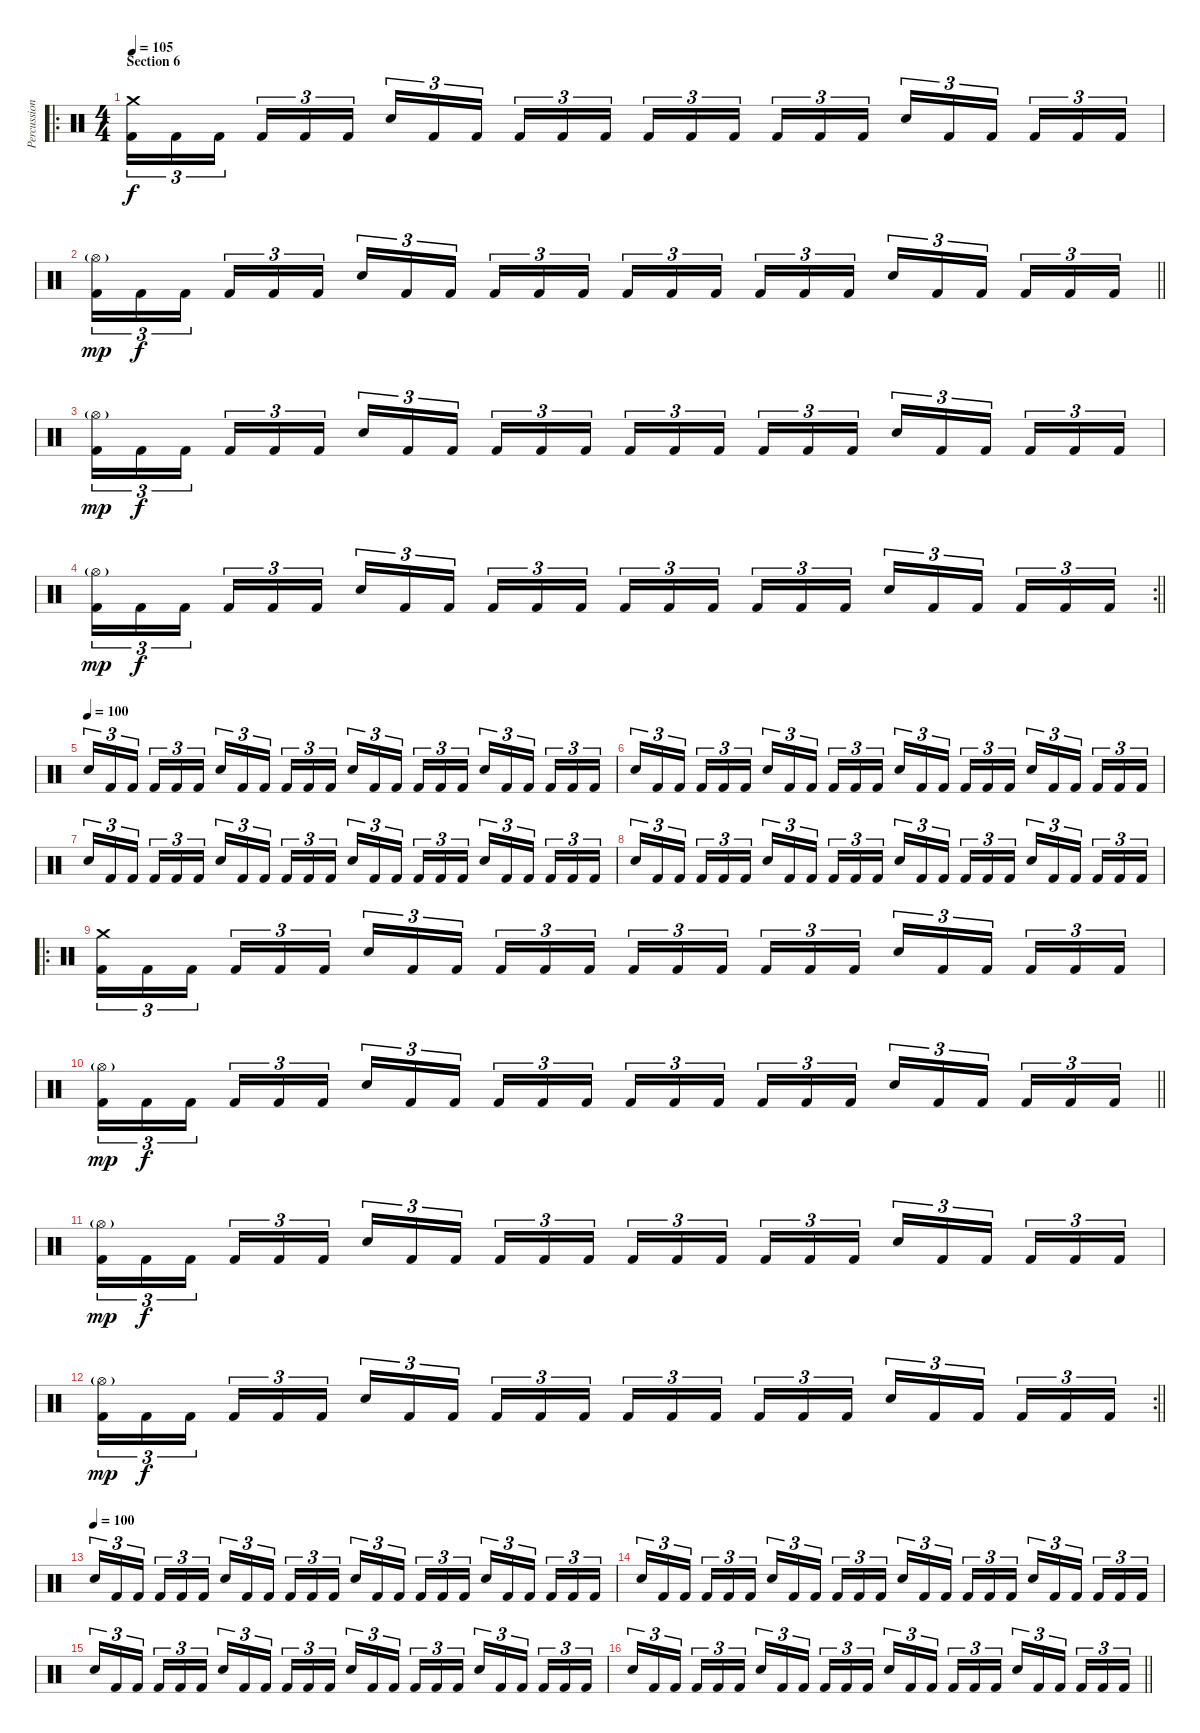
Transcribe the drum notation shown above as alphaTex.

\track ("Percussions" "Percussion") {instrument percussion}
\staff {score}
\articulation defaults
\ro
\ts (4 4)
\section ("" "Section 6")
\tempo 105
\clef neutral
\ks c
("Crash medium (hit)" "Kick (hit) 2").16{tu (3 2) dy f} "Kick (hit) 2".16{tu (3 2)} "Kick (hit) 2".16{tu (3 2)} "Kick (hit) 2".16{tu (3 2)} "Kick (hit) 2".16{tu (3 2)} "Kick (hit) 2".16{tu (3 2)} "Electric Snare (hit)".16{tu (3 2)} "Kick (hit) 2".16{tu (3 2)} "Kick (hit) 2".16{tu (3 2)} "Kick (hit) 2".16{tu (3 2)} "Kick (hit) 2".16{tu (3 2)} "Kick (hit) 2".16{tu (3 2)} "Kick (hit) 2".16{tu (3 2)} "Kick (hit) 2".16{tu (3 2)} "Kick (hit) 2".16{tu (3 2)} "Kick (hit) 2".16{tu (3 2)} "Kick (hit) 2".16{tu (3 2)} "Kick (hit) 2".16{tu (3 2)} "Electric Snare (hit)".16{tu (3 2)} "Kick (hit) 2".16{tu (3 2)} "Kick (hit) 2".16{tu (3 2)} "Kick (hit) 2".16{tu (3 2)} "Kick (hit) 2".16{tu (3 2)} "Kick (hit) 2".16{tu (3 2)} |
\barLineRight lightlight
("Hi-Hat (open)"{g} "Kick (hit) 2").16{tu (3 2) dy mp} "Kick (hit) 2".16{tu (3 2) dy f} "Kick (hit) 2".16{tu (3 2)} "Kick (hit) 2".16{tu (3 2)} "Kick (hit) 2".16{tu (3 2)} "Kick (hit) 2".16{tu (3 2)} "Electric Snare (hit)".16{tu (3 2)} "Kick (hit) 2".16{tu (3 2)} "Kick (hit) 2".16{tu (3 2)} "Kick (hit) 2".16{tu (3 2)} "Kick (hit) 2".16{tu (3 2)} "Kick (hit) 2".16{tu (3 2)} "Kick (hit) 2".16{tu (3 2)} "Kick (hit) 2".16{tu (3 2)} "Kick (hit) 2".16{tu (3 2)} "Kick (hit) 2".16{tu (3 2)} "Kick (hit) 2".16{tu (3 2)} "Kick (hit) 2".16{tu (3 2)} "Electric Snare (hit)".16{tu (3 2)} "Kick (hit) 2".16{tu (3 2)} "Kick (hit) 2".16{tu (3 2)} "Kick (hit) 2".16{tu (3 2)} "Kick (hit) 2".16{tu (3 2)} "Kick (hit) 2".16{tu (3 2)} |
("Hi-Hat (open)"{g} "Kick (hit) 2").16{tu (3 2) dy mp} "Kick (hit) 2".16{tu (3 2) dy f} "Kick (hit) 2".16{tu (3 2)} "Kick (hit) 2".16{tu (3 2)} "Kick (hit) 2".16{tu (3 2)} "Kick (hit) 2".16{tu (3 2)} "Electric Snare (hit)".16{tu (3 2)} "Kick (hit) 2".16{tu (3 2)} "Kick (hit) 2".16{tu (3 2)} "Kick (hit) 2".16{tu (3 2)} "Kick (hit) 2".16{tu (3 2)} "Kick (hit) 2".16{tu (3 2)} "Kick (hit) 2".16{tu (3 2)} "Kick (hit) 2".16{tu (3 2)} "Kick (hit) 2".16{tu (3 2)} "Kick (hit) 2".16{tu (3 2)} "Kick (hit) 2".16{tu (3 2)} "Kick (hit) 2".16{tu (3 2)} "Electric Snare (hit)".16{tu (3 2)} "Kick (hit) 2".16{tu (3 2)} "Kick (hit) 2".16{tu (3 2)} "Kick (hit) 2".16{tu (3 2)} "Kick (hit) 2".16{tu (3 2)} "Kick (hit) 2".16{tu (3 2)} |
\rc 2
\barLineRight lightlight
("Hi-Hat (open)"{g} "Kick (hit) 2").16{tu (3 2) dy mp} "Kick (hit) 2".16{tu (3 2) dy f} "Kick (hit) 2".16{tu (3 2)} "Kick (hit) 2".16{tu (3 2)} "Kick (hit) 2".16{tu (3 2)} "Kick (hit) 2".16{tu (3 2)} "Electric Snare (hit)".16{tu (3 2)} "Kick (hit) 2".16{tu (3 2)} "Kick (hit) 2".16{tu (3 2)} "Kick (hit) 2".16{tu (3 2)} "Kick (hit) 2".16{tu (3 2)} "Kick (hit) 2".16{tu (3 2)} "Kick (hit) 2".16{tu (3 2)} "Kick (hit) 2".16{tu (3 2)} "Kick (hit) 2".16{tu (3 2)} "Kick (hit) 2".16{tu (3 2)} "Kick (hit) 2".16{tu (3 2)} "Kick (hit) 2".16{tu (3 2)} "Electric Snare (hit)".16{tu (3 2)} "Kick (hit) 2".16{tu (3 2)} "Kick (hit) 2".16{tu (3 2)} "Kick (hit) 2".16{tu (3 2)} "Kick (hit) 2".16{tu (3 2)} "Kick (hit) 2".16{tu (3 2)} |
\tempo (100)
"Electric Snare (hit)".16{tu (3 2)} "Kick (hit) 2".16{tu (3 2)} "Kick (hit) 2".16{tu (3 2)} "Kick (hit) 2".16{tu (3 2)} "Kick (hit) 2".16{tu (3 2)} "Kick (hit) 2".16{tu (3 2)} "Electric Snare (hit)".16{tu (3 2)} "Kick (hit) 2".16{tu (3 2)} "Kick (hit) 2".16{tu (3 2)} "Kick (hit) 2".16{tu (3 2)} "Kick (hit) 2".16{tu (3 2)} "Kick (hit) 2".16{tu (3 2)} "Electric Snare (hit)".16{tu (3 2)} "Kick (hit) 2".16{tu (3 2)} "Kick (hit) 2".16{tu (3 2)} "Kick (hit) 2".16{tu (3 2)} "Kick (hit) 2".16{tu (3 2)} "Kick (hit) 2".16{tu (3 2)} "Electric Snare (hit)".16{tu (3 2)} "Kick (hit) 2".16{tu (3 2)} "Kick (hit) 2".16{tu (3 2)} "Kick (hit) 2".16{tu (3 2)} "Kick (hit) 2".16{tu (3 2)} "Kick (hit) 2".16{tu (3 2)} |
"Electric Snare (hit)".16{tu (3 2)} "Kick (hit) 2".16{tu (3 2)} "Kick (hit) 2".16{tu (3 2)} "Kick (hit) 2".16{tu (3 2)} "Kick (hit) 2".16{tu (3 2)} "Kick (hit) 2".16{tu (3 2)} "Electric Snare (hit)".16{tu (3 2)} "Kick (hit) 2".16{tu (3 2)} "Kick (hit) 2".16{tu (3 2)} "Kick (hit) 2".16{tu (3 2)} "Kick (hit) 2".16{tu (3 2)} "Kick (hit) 2".16{tu (3 2)} "Electric Snare (hit)".16{tu (3 2)} "Kick (hit) 2".16{tu (3 2)} "Kick (hit) 2".16{tu (3 2)} "Kick (hit) 2".16{tu (3 2)} "Kick (hit) 2".16{tu (3 2)} "Kick (hit) 2".16{tu (3 2)} "Electric Snare (hit)".16{tu (3 2)} "Kick (hit) 2".16{tu (3 2)} "Kick (hit) 2".16{tu (3 2)} "Kick (hit) 2".16{tu (3 2)} "Kick (hit) 2".16{tu (3 2)} "Kick (hit) 2".16{tu (3 2)} |
"Electric Snare (hit)".16{tu (3 2)} "Kick (hit) 2".16{tu (3 2)} "Kick (hit) 2".16{tu (3 2)} "Kick (hit) 2".16{tu (3 2)} "Kick (hit) 2".16{tu (3 2)} "Kick (hit) 2".16{tu (3 2)} "Electric Snare (hit)".16{tu (3 2)} "Kick (hit) 2".16{tu (3 2)} "Kick (hit) 2".16{tu (3 2)} "Kick (hit) 2".16{tu (3 2)} "Kick (hit) 2".16{tu (3 2)} "Kick (hit) 2".16{tu (3 2)} "Electric Snare (hit)".16{tu (3 2)} "Kick (hit) 2".16{tu (3 2)} "Kick (hit) 2".16{tu (3 2)} "Kick (hit) 2".16{tu (3 2)} "Kick (hit) 2".16{tu (3 2)} "Kick (hit) 2".16{tu (3 2)} "Electric Snare (hit)".16{tu (3 2)} "Kick (hit) 2".16{tu (3 2)} "Kick (hit) 2".16{tu (3 2)} "Kick (hit) 2".16{tu (3 2)} "Kick (hit) 2".16{tu (3 2)} "Kick (hit) 2".16{tu (3 2)} |
"Electric Snare (hit)".16{tu (3 2)} "Kick (hit) 2".16{tu (3 2)} "Kick (hit) 2".16{tu (3 2)} "Kick (hit) 2".16{tu (3 2)} "Kick (hit) 2".16{tu (3 2)} "Kick (hit) 2".16{tu (3 2)} "Electric Snare (hit)".16{tu (3 2)} "Kick (hit) 2".16{tu (3 2)} "Kick (hit) 2".16{tu (3 2)} "Kick (hit) 2".16{tu (3 2)} "Kick (hit) 2".16{tu (3 2)} "Kick (hit) 2".16{tu (3 2)} "Electric Snare (hit)".16{tu (3 2)} "Kick (hit) 2".16{tu (3 2)} "Kick (hit) 2".16{tu (3 2)} "Kick (hit) 2".16{tu (3 2)} "Kick (hit) 2".16{tu (3 2)} "Kick (hit) 2".16{tu (3 2)} "Electric Snare (hit)".16{tu (3 2)} "Kick (hit) 2".16{tu (3 2)} "Kick (hit) 2".16{tu (3 2)} "Kick (hit) 2".16{tu (3 2)} "Kick (hit) 2".16{tu (3 2)} "Kick (hit) 2".16{tu (3 2)} |
\ro
("Crash medium (hit)" "Kick (hit) 2").16{tu (3 2)} "Kick (hit) 2".16{tu (3 2)} "Kick (hit) 2".16{tu (3 2)} "Kick (hit) 2".16{tu (3 2)} "Kick (hit) 2".16{tu (3 2)} "Kick (hit) 2".16{tu (3 2)} "Electric Snare (hit)".16{tu (3 2)} "Kick (hit) 2".16{tu (3 2)} "Kick (hit) 2".16{tu (3 2)} "Kick (hit) 2".16{tu (3 2)} "Kick (hit) 2".16{tu (3 2)} "Kick (hit) 2".16{tu (3 2)} "Kick (hit) 2".16{tu (3 2)} "Kick (hit) 2".16{tu (3 2)} "Kick (hit) 2".16{tu (3 2)} "Kick (hit) 2".16{tu (3 2)} "Kick (hit) 2".16{tu (3 2)} "Kick (hit) 2".16{tu (3 2)} "Electric Snare (hit)".16{tu (3 2)} "Kick (hit) 2".16{tu (3 2)} "Kick (hit) 2".16{tu (3 2)} "Kick (hit) 2".16{tu (3 2)} "Kick (hit) 2".16{tu (3 2)} "Kick (hit) 2".16{tu (3 2)} |
\barLineRight lightlight
("Hi-Hat (open)"{g} "Kick (hit) 2").16{tu (3 2) dy mp} "Kick (hit) 2".16{tu (3 2) dy f} "Kick (hit) 2".16{tu (3 2)} "Kick (hit) 2".16{tu (3 2)} "Kick (hit) 2".16{tu (3 2)} "Kick (hit) 2".16{tu (3 2)} "Electric Snare (hit)".16{tu (3 2)} "Kick (hit) 2".16{tu (3 2)} "Kick (hit) 2".16{tu (3 2)} "Kick (hit) 2".16{tu (3 2)} "Kick (hit) 2".16{tu (3 2)} "Kick (hit) 2".16{tu (3 2)} "Kick (hit) 2".16{tu (3 2)} "Kick (hit) 2".16{tu (3 2)} "Kick (hit) 2".16{tu (3 2)} "Kick (hit) 2".16{tu (3 2)} "Kick (hit) 2".16{tu (3 2)} "Kick (hit) 2".16{tu (3 2)} "Electric Snare (hit)".16{tu (3 2)} "Kick (hit) 2".16{tu (3 2)} "Kick (hit) 2".16{tu (3 2)} "Kick (hit) 2".16{tu (3 2)} "Kick (hit) 2".16{tu (3 2)} "Kick (hit) 2".16{tu (3 2)} |
("Hi-Hat (open)"{g} "Kick (hit) 2").16{tu (3 2) dy mp} "Kick (hit) 2".16{tu (3 2) dy f} "Kick (hit) 2".16{tu (3 2)} "Kick (hit) 2".16{tu (3 2)} "Kick (hit) 2".16{tu (3 2)} "Kick (hit) 2".16{tu (3 2)} "Electric Snare (hit)".16{tu (3 2)} "Kick (hit) 2".16{tu (3 2)} "Kick (hit) 2".16{tu (3 2)} "Kick (hit) 2".16{tu (3 2)} "Kick (hit) 2".16{tu (3 2)} "Kick (hit) 2".16{tu (3 2)} "Kick (hit) 2".16{tu (3 2)} "Kick (hit) 2".16{tu (3 2)} "Kick (hit) 2".16{tu (3 2)} "Kick (hit) 2".16{tu (3 2)} "Kick (hit) 2".16{tu (3 2)} "Kick (hit) 2".16{tu (3 2)} "Electric Snare (hit)".16{tu (3 2)} "Kick (hit) 2".16{tu (3 2)} "Kick (hit) 2".16{tu (3 2)} "Kick (hit) 2".16{tu (3 2)} "Kick (hit) 2".16{tu (3 2)} "Kick (hit) 2".16{tu (3 2)} |
\rc 2
\barLineRight lightlight
("Hi-Hat (open)"{g} "Kick (hit) 2").16{tu (3 2) dy mp} "Kick (hit) 2".16{tu (3 2) dy f} "Kick (hit) 2".16{tu (3 2)} "Kick (hit) 2".16{tu (3 2)} "Kick (hit) 2".16{tu (3 2)} "Kick (hit) 2".16{tu (3 2)} "Electric Snare (hit)".16{tu (3 2)} "Kick (hit) 2".16{tu (3 2)} "Kick (hit) 2".16{tu (3 2)} "Kick (hit) 2".16{tu (3 2)} "Kick (hit) 2".16{tu (3 2)} "Kick (hit) 2".16{tu (3 2)} "Kick (hit) 2".16{tu (3 2)} "Kick (hit) 2".16{tu (3 2)} "Kick (hit) 2".16{tu (3 2)} "Kick (hit) 2".16{tu (3 2)} "Kick (hit) 2".16{tu (3 2)} "Kick (hit) 2".16{tu (3 2)} "Electric Snare (hit)".16{tu (3 2)} "Kick (hit) 2".16{tu (3 2)} "Kick (hit) 2".16{tu (3 2)} "Kick (hit) 2".16{tu (3 2)} "Kick (hit) 2".16{tu (3 2)} "Kick (hit) 2".16{tu (3 2)} |
\tempo (100)
"Electric Snare (hit)".16{tu (3 2)} "Kick (hit) 2".16{tu (3 2)} "Kick (hit) 2".16{tu (3 2)} "Kick (hit) 2".16{tu (3 2)} "Kick (hit) 2".16{tu (3 2)} "Kick (hit) 2".16{tu (3 2)} "Electric Snare (hit)".16{tu (3 2)} "Kick (hit) 2".16{tu (3 2)} "Kick (hit) 2".16{tu (3 2)} "Kick (hit) 2".16{tu (3 2)} "Kick (hit) 2".16{tu (3 2)} "Kick (hit) 2".16{tu (3 2)} "Electric Snare (hit)".16{tu (3 2)} "Kick (hit) 2".16{tu (3 2)} "Kick (hit) 2".16{tu (3 2)} "Kick (hit) 2".16{tu (3 2)} "Kick (hit) 2".16{tu (3 2)} "Kick (hit) 2".16{tu (3 2)} "Electric Snare (hit)".16{tu (3 2)} "Kick (hit) 2".16{tu (3 2)} "Kick (hit) 2".16{tu (3 2)} "Kick (hit) 2".16{tu (3 2)} "Kick (hit) 2".16{tu (3 2)} "Kick (hit) 2".16{tu (3 2)} |
"Electric Snare (hit)".16{tu (3 2)} "Kick (hit) 2".16{tu (3 2)} "Kick (hit) 2".16{tu (3 2)} "Kick (hit) 2".16{tu (3 2)} "Kick (hit) 2".16{tu (3 2)} "Kick (hit) 2".16{tu (3 2)} "Electric Snare (hit)".16{tu (3 2)} "Kick (hit) 2".16{tu (3 2)} "Kick (hit) 2".16{tu (3 2)} "Kick (hit) 2".16{tu (3 2)} "Kick (hit) 2".16{tu (3 2)} "Kick (hit) 2".16{tu (3 2)} "Electric Snare (hit)".16{tu (3 2)} "Kick (hit) 2".16{tu (3 2)} "Kick (hit) 2".16{tu (3 2)} "Kick (hit) 2".16{tu (3 2)} "Kick (hit) 2".16{tu (3 2)} "Kick (hit) 2".16{tu (3 2)} "Electric Snare (hit)".16{tu (3 2)} "Kick (hit) 2".16{tu (3 2)} "Kick (hit) 2".16{tu (3 2)} "Kick (hit) 2".16{tu (3 2)} "Kick (hit) 2".16{tu (3 2)} "Kick (hit) 2".16{tu (3 2)} |
"Electric Snare (hit)".16{tu (3 2)} "Kick (hit) 2".16{tu (3 2)} "Kick (hit) 2".16{tu (3 2)} "Kick (hit) 2".16{tu (3 2)} "Kick (hit) 2".16{tu (3 2)} "Kick (hit) 2".16{tu (3 2)} "Electric Snare (hit)".16{tu (3 2)} "Kick (hit) 2".16{tu (3 2)} "Kick (hit) 2".16{tu (3 2)} "Kick (hit) 2".16{tu (3 2)} "Kick (hit) 2".16{tu (3 2)} "Kick (hit) 2".16{tu (3 2)} "Electric Snare (hit)".16{tu (3 2)} "Kick (hit) 2".16{tu (3 2)} "Kick (hit) 2".16{tu (3 2)} "Kick (hit) 2".16{tu (3 2)} "Kick (hit) 2".16{tu (3 2)} "Kick (hit) 2".16{tu (3 2)} "Electric Snare (hit)".16{tu (3 2)} "Kick (hit) 2".16{tu (3 2)} "Kick (hit) 2".16{tu (3 2)} "Kick (hit) 2".16{tu (3 2)} "Kick (hit) 2".16{tu (3 2)} "Kick (hit) 2".16{tu (3 2)} |
\barLineRight lightlight "Electric Snare (hit)".16{tu (3 2)} "Kick (hit) 2".16{tu (3 2)} "Kick (hit) 2".16{tu (3 2)} "Kick (hit) 2".16{tu (3 2)} "Kick (hit) 2".16{tu (3 2)} "Kick (hit) 2".16{tu (3 2)} "Electric Snare (hit)".16{tu (3 2)} "Kick (hit) 2".16{tu (3 2)} "Kick (hit) 2".16{tu (3 2)} "Kick (hit) 2".16{tu (3 2)} "Kick (hit) 2".16{tu (3 2)} "Kick (hit) 2".16{tu (3 2)} "Electric Snare (hit)".16{tu (3 2)} "Kick (hit) 2".16{tu (3 2)} "Kick (hit) 2".16{tu (3 2)} "Kick (hit) 2".16{tu (3 2)} "Kick (hit) 2".16{tu (3 2)} "Kick (hit) 2".16{tu (3 2)} "Electric Snare (hit)".16{tu (3 2)} "Kick (hit) 2".16{tu (3 2)} "Kick (hit) 2".16{tu (3 2)} "Kick (hit) 2".16{tu (3 2)} "Kick (hit) 2".16{tu (3 2)} "Kick (hit) 2".16{tu (3 2)}
